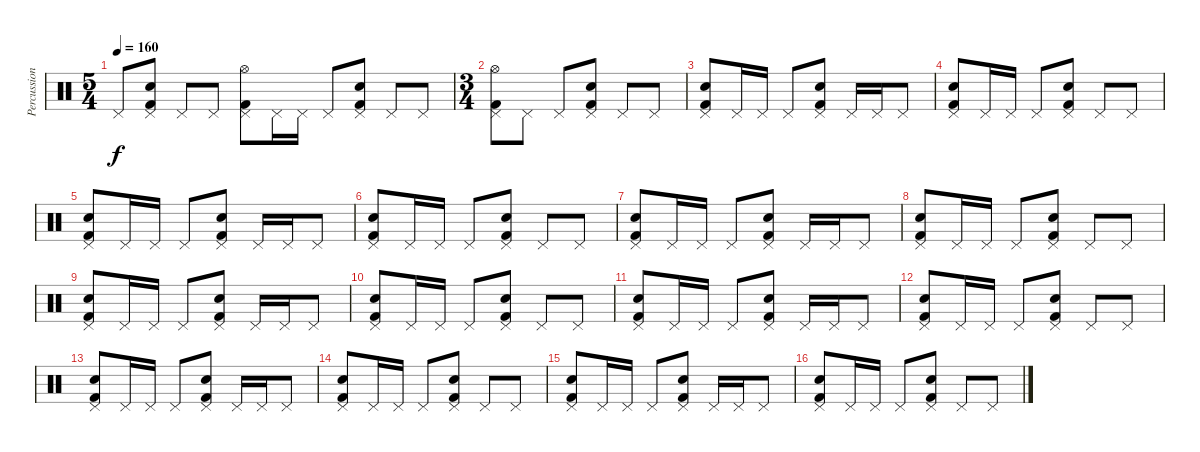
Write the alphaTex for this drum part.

\track ("Percussion" "Percussion") {instrument percussion}
\staff {score}
\articulation defaults
\ts (5 4)
\tempo 160
\clef neutral
\ks c "Pedal Hi-Hat (hit)".8{dy f}
("Snare (hit) 2" "Kick (hit) 2" "Pedal Hi-Hat (hit)").8 "Pedal Hi-Hat (hit)".8 "Pedal Hi-Hat (hit)".8 ("Hi-Hat (open)" "Kick (hit) 2" "Pedal Hi-Hat (hit)").8 "Pedal Hi-Hat (hit)".16 "Pedal Hi-Hat (hit)".16 "Pedal Hi-Hat (hit)".8 ("Snare (hit) 2" "Kick (hit) 2" "Pedal Hi-Hat (hit)").8 "Pedal Hi-Hat (hit)".8 "Pedal Hi-Hat (hit)".8 |
\ts (3 4)
("Hi-Hat (open)" "Kick (hit) 2" "Pedal Hi-Hat (hit)").8 "Pedal Hi-Hat (hit)".8 "Pedal Hi-Hat (hit)".8 ("Snare (hit) 2" "Kick (hit) 2" "Pedal Hi-Hat (hit)").8 "Pedal Hi-Hat (hit)".8 "Pedal Hi-Hat (hit)".8 |
("Snare (hit) 2" "Kick (hit) 2" "Pedal Hi-Hat (hit)").8 "Pedal Hi-Hat (hit)".16 "Pedal Hi-Hat (hit)".16 "Pedal Hi-Hat (hit)".8 ("Electric Snare (hit)" "Kick (hit) 2" "Pedal Hi-Hat (hit)").8 "Pedal Hi-Hat (hit)".16 "Pedal Hi-Hat (hit)".16 "Pedal Hi-Hat (hit)".8 |
("Snare (hit) 2" "Kick (hit) 2" "Pedal Hi-Hat (hit)").8 "Pedal Hi-Hat (hit)".16 "Pedal Hi-Hat (hit)".16 "Pedal Hi-Hat (hit)".8 ("Electric Snare (hit)" "Kick (hit) 2" "Pedal Hi-Hat (hit)").8 "Pedal Hi-Hat (hit)".8 "Pedal Hi-Hat (hit)".8 |
("Snare (hit) 2" "Kick (hit) 2" "Pedal Hi-Hat (hit)").8 "Pedal Hi-Hat (hit)".16 "Pedal Hi-Hat (hit)".16 "Pedal Hi-Hat (hit)".8 ("Electric Snare (hit)" "Kick (hit) 2" "Pedal Hi-Hat (hit)").8 "Pedal Hi-Hat (hit)".16 "Pedal Hi-Hat (hit)".16 "Pedal Hi-Hat (hit)".8 |
("Snare (hit) 2" "Kick (hit) 2" "Pedal Hi-Hat (hit)").8 "Pedal Hi-Hat (hit)".16 "Pedal Hi-Hat (hit)".16 "Pedal Hi-Hat (hit)".8 ("Electric Snare (hit)" "Kick (hit) 2" "Pedal Hi-Hat (hit)").8 "Pedal Hi-Hat (hit)".8 "Pedal Hi-Hat (hit)".8 |
("Snare (hit) 2" "Kick (hit) 2" "Pedal Hi-Hat (hit)").8 "Pedal Hi-Hat (hit)".16 "Pedal Hi-Hat (hit)".16 "Pedal Hi-Hat (hit)".8 ("Electric Snare (hit)" "Kick (hit) 2" "Pedal Hi-Hat (hit)").8 "Pedal Hi-Hat (hit)".16 "Pedal Hi-Hat (hit)".16 "Pedal Hi-Hat (hit)".8 |
("Snare (hit) 2" "Kick (hit) 2" "Pedal Hi-Hat (hit)").8 "Pedal Hi-Hat (hit)".16 "Pedal Hi-Hat (hit)".16 "Pedal Hi-Hat (hit)".8 ("Electric Snare (hit)" "Kick (hit) 2" "Pedal Hi-Hat (hit)").8 "Pedal Hi-Hat (hit)".8 "Pedal Hi-Hat (hit)".8 |
("Snare (hit) 2" "Kick (hit) 2" "Pedal Hi-Hat (hit)").8 "Pedal Hi-Hat (hit)".16 "Pedal Hi-Hat (hit)".16 "Pedal Hi-Hat (hit)".8 ("Electric Snare (hit)" "Kick (hit) 2" "Pedal Hi-Hat (hit)").8 "Pedal Hi-Hat (hit)".16 "Pedal Hi-Hat (hit)".16 "Pedal Hi-Hat (hit)".8 |
("Snare (hit) 2" "Kick (hit) 2" "Pedal Hi-Hat (hit)").8 "Pedal Hi-Hat (hit)".16 "Pedal Hi-Hat (hit)".16 "Pedal Hi-Hat (hit)".8 ("Electric Snare (hit)" "Kick (hit) 2" "Pedal Hi-Hat (hit)").8 "Pedal Hi-Hat (hit)".8 "Pedal Hi-Hat (hit)".8 |
("Snare (hit) 2" "Kick (hit) 2" "Pedal Hi-Hat (hit)").8 "Pedal Hi-Hat (hit)".16 "Pedal Hi-Hat (hit)".16 "Pedal Hi-Hat (hit)".8 ("Electric Snare (hit)" "Kick (hit) 2" "Pedal Hi-Hat (hit)").8 "Pedal Hi-Hat (hit)".16 "Pedal Hi-Hat (hit)".16 "Pedal Hi-Hat (hit)".8 |
("Snare (hit) 2" "Kick (hit) 2" "Pedal Hi-Hat (hit)").8 "Pedal Hi-Hat (hit)".16 "Pedal Hi-Hat (hit)".16 "Pedal Hi-Hat (hit)".8 ("Electric Snare (hit)" "Kick (hit) 2" "Pedal Hi-Hat (hit)").8 "Pedal Hi-Hat (hit)".8 "Pedal Hi-Hat (hit)".8 |
("Snare (hit) 2" "Kick (hit) 2" "Pedal Hi-Hat (hit)").8 "Pedal Hi-Hat (hit)".16 "Pedal Hi-Hat (hit)".16 "Pedal Hi-Hat (hit)".8 ("Electric Snare (hit)" "Kick (hit) 2" "Pedal Hi-Hat (hit)").8 "Pedal Hi-Hat (hit)".16 "Pedal Hi-Hat (hit)".16 "Pedal Hi-Hat (hit)".8 |
("Snare (hit) 2" "Kick (hit) 2" "Pedal Hi-Hat (hit)").8 "Pedal Hi-Hat (hit)".16 "Pedal Hi-Hat (hit)".16 "Pedal Hi-Hat (hit)".8 ("Electric Snare (hit)" "Kick (hit) 2" "Pedal Hi-Hat (hit)").8 "Pedal Hi-Hat (hit)".8 "Pedal Hi-Hat (hit)".8 |
("Snare (hit) 2" "Kick (hit) 2" "Pedal Hi-Hat (hit)").8 "Pedal Hi-Hat (hit)".16 "Pedal Hi-Hat (hit)".16 "Pedal Hi-Hat (hit)".8 ("Electric Snare (hit)" "Kick (hit) 2" "Pedal Hi-Hat (hit)").8 "Pedal Hi-Hat (hit)".16 "Pedal Hi-Hat (hit)".16 "Pedal Hi-Hat (hit)".8 |
("Snare (hit) 2" "Kick (hit) 2" "Pedal Hi-Hat (hit)").8 "Pedal Hi-Hat (hit)".16 "Pedal Hi-Hat (hit)".16 "Pedal Hi-Hat (hit)".8 ("Electric Snare (hit)" "Kick (hit) 2" "Pedal Hi-Hat (hit)").8 "Pedal Hi-Hat (hit)".8 "Pedal Hi-Hat (hit)".8
